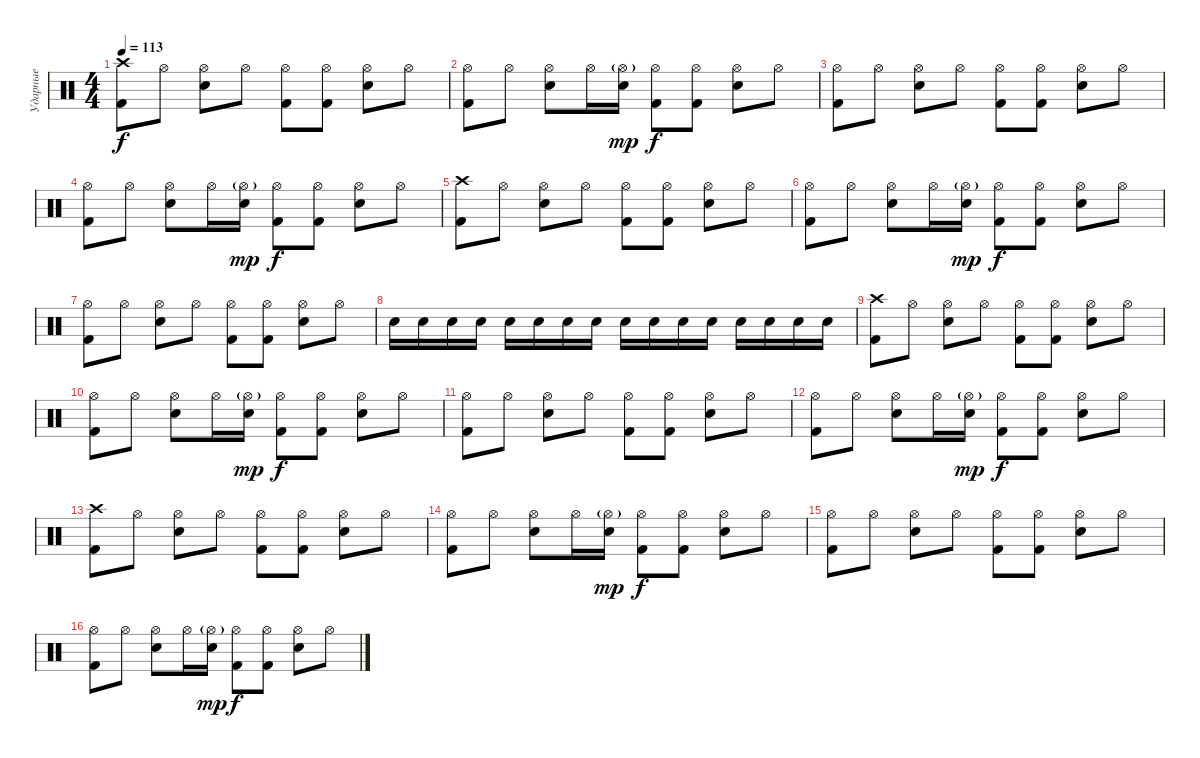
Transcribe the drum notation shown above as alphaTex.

\track ("Ударные" "Ударные") {instrument percussion}
\staff {score}
\articulation defaults
\ts (4 4)
\tempo 113
\clef neutral
\ks c
("Crash high (hit)" "Kick (hit) 2").8{dy f} "Hi-Hat (open)".8 ("Hi-Hat (open)" "Snare (hit) 2").8 "Hi-Hat (open)".8 ("Hi-Hat (open)" "Kick (hit) 2").8 ("Hi-Hat (open)" "Kick (hit) 2").8 ("Hi-Hat (open)" "Snare (hit) 2").8 "Hi-Hat (open)".8 |
("Hi-Hat (open)" "Kick (hit) 2").8 "Hi-Hat (open)".8 ("Hi-Hat (open)" "Snare (hit) 2").8 "Hi-Hat (open)".16 ("Hi-Hat (open)"{g} "Snare (hit) 2").16{dy mp} ("Hi-Hat (open)" "Kick (hit) 2").8{dy f} ("Hi-Hat (open)" "Kick (hit) 2").8 ("Hi-Hat (open)" "Snare (hit) 2").8 "Hi-Hat (open)".8 |
("Hi-Hat (open)" "Kick (hit) 2").8 "Hi-Hat (open)".8 ("Hi-Hat (open)" "Snare (hit) 2").8 "Hi-Hat (open)".8 ("Hi-Hat (open)" "Kick (hit) 2").8 ("Hi-Hat (open)" "Kick (hit) 2").8 ("Hi-Hat (open)" "Snare (hit) 2").8 "Hi-Hat (open)".8 |
("Hi-Hat (open)" "Kick (hit) 2").8 "Hi-Hat (open)".8 ("Hi-Hat (open)" "Snare (hit) 2").8 "Hi-Hat (open)".16 ("Hi-Hat (open)"{g} "Snare (hit) 2").16{dy mp} ("Hi-Hat (open)" "Kick (hit) 2").8{dy f} ("Hi-Hat (open)" "Kick (hit) 2").8 ("Hi-Hat (open)" "Snare (hit) 2").8 "Hi-Hat (open)".8 |
("Crash high (hit)" "Kick (hit) 2").8 "Hi-Hat (open)".8 ("Hi-Hat (open)" "Snare (hit) 2").8 "Hi-Hat (open)".8 ("Hi-Hat (open)" "Kick (hit) 2").8 ("Hi-Hat (open)" "Kick (hit) 2").8 ("Hi-Hat (open)" "Snare (hit) 2").8 "Hi-Hat (open)".8 |
("Hi-Hat (open)" "Kick (hit) 2").8 "Hi-Hat (open)".8 ("Hi-Hat (open)" "Snare (hit) 2").8 "Hi-Hat (open)".16 ("Hi-Hat (open)"{g} "Snare (hit) 2").16{dy mp} ("Hi-Hat (open)" "Kick (hit) 2").8{dy f} ("Hi-Hat (open)" "Kick (hit) 2").8 ("Hi-Hat (open)" "Snare (hit) 2").8 "Hi-Hat (open)".8 |
("Hi-Hat (open)" "Kick (hit) 2").8 "Hi-Hat (open)".8 ("Hi-Hat (open)" "Snare (hit) 2").8 "Hi-Hat (open)".8 ("Hi-Hat (open)" "Kick (hit) 2").8 ("Hi-Hat (open)" "Kick (hit) 2").8 ("Hi-Hat (open)" "Snare (hit) 2").8 "Hi-Hat (open)".8 |
"Snare (hit) 2".16 "Snare (hit) 2".16 "Snare (hit) 2".16 "Snare (hit) 2".16 "Snare (hit) 2".16 "Snare (hit) 2".16 "Snare (hit) 2".16 "Snare (hit) 2".16 "Snare (hit) 2".16 "Snare (hit) 2".16 "Snare (hit) 2".16 "Snare (hit) 2".16 "Snare (hit) 2".16 "Snare (hit) 2".16 "Snare (hit) 2".16 "Snare (hit) 2".16 |
("Crash high (hit)" "Kick (hit) 2").8 "Hi-Hat (open)".8 ("Hi-Hat (open)" "Snare (hit) 2").8 "Hi-Hat (open)".8 ("Hi-Hat (open)" "Kick (hit) 2").8 ("Hi-Hat (open)" "Kick (hit) 2").8 ("Hi-Hat (open)" "Snare (hit) 2").8 "Hi-Hat (open)".8 |
("Hi-Hat (open)" "Kick (hit) 2").8 "Hi-Hat (open)".8 ("Hi-Hat (open)" "Snare (hit) 2").8 "Hi-Hat (open)".16 ("Hi-Hat (open)"{g} "Snare (hit) 2").16{dy mp} ("Hi-Hat (open)" "Kick (hit) 2").8{dy f} ("Hi-Hat (open)" "Kick (hit) 2").8 ("Hi-Hat (open)" "Snare (hit) 2").8 "Hi-Hat (open)".8 |
("Hi-Hat (open)" "Kick (hit) 2").8 "Hi-Hat (open)".8 ("Hi-Hat (open)" "Snare (hit) 2").8 "Hi-Hat (open)".8 ("Hi-Hat (open)" "Kick (hit) 2").8 ("Hi-Hat (open)" "Kick (hit) 2").8 ("Hi-Hat (open)" "Snare (hit) 2").8 "Hi-Hat (open)".8 |
("Hi-Hat (open)" "Kick (hit) 2").8 "Hi-Hat (open)".8 ("Hi-Hat (open)" "Snare (hit) 2").8 "Hi-Hat (open)".16 ("Hi-Hat (open)"{g} "Snare (hit) 2").16{dy mp} ("Hi-Hat (open)" "Kick (hit) 2").8{dy f} ("Hi-Hat (open)" "Kick (hit) 2").8 ("Hi-Hat (open)" "Snare (hit) 2").8 "Hi-Hat (open)".8 |
("Crash high (hit)" "Kick (hit) 2").8 "Hi-Hat (open)".8 ("Hi-Hat (open)" "Snare (hit) 2").8 "Hi-Hat (open)".8 ("Hi-Hat (open)" "Kick (hit) 2").8 ("Hi-Hat (open)" "Kick (hit) 2").8 ("Hi-Hat (open)" "Snare (hit) 2").8 "Hi-Hat (open)".8 |
("Hi-Hat (open)" "Kick (hit) 2").8 "Hi-Hat (open)".8 ("Hi-Hat (open)" "Snare (hit) 2").8 "Hi-Hat (open)".16 ("Hi-Hat (open)"{g} "Snare (hit) 2").16{dy mp} ("Hi-Hat (open)" "Kick (hit) 2").8{dy f} ("Hi-Hat (open)" "Kick (hit) 2").8 ("Hi-Hat (open)" "Snare (hit) 2").8 "Hi-Hat (open)".8 |
("Hi-Hat (open)" "Kick (hit) 2").8 "Hi-Hat (open)".8 ("Hi-Hat (open)" "Snare (hit) 2").8 "Hi-Hat (open)".8 ("Hi-Hat (open)" "Kick (hit) 2").8 ("Hi-Hat (open)" "Kick (hit) 2").8 ("Hi-Hat (open)" "Snare (hit) 2").8 "Hi-Hat (open)".8 |
("Hi-Hat (open)" "Kick (hit) 2").8 "Hi-Hat (open)".8 ("Hi-Hat (open)" "Snare (hit) 2").8 "Hi-Hat (open)".16 ("Hi-Hat (open)"{g} "Snare (hit) 2").16{dy mp} ("Hi-Hat (open)" "Kick (hit) 2").8{dy f} ("Hi-Hat (open)" "Kick (hit) 2").8 ("Hi-Hat (open)" "Snare (hit) 2").8 "Hi-Hat (open)".8
